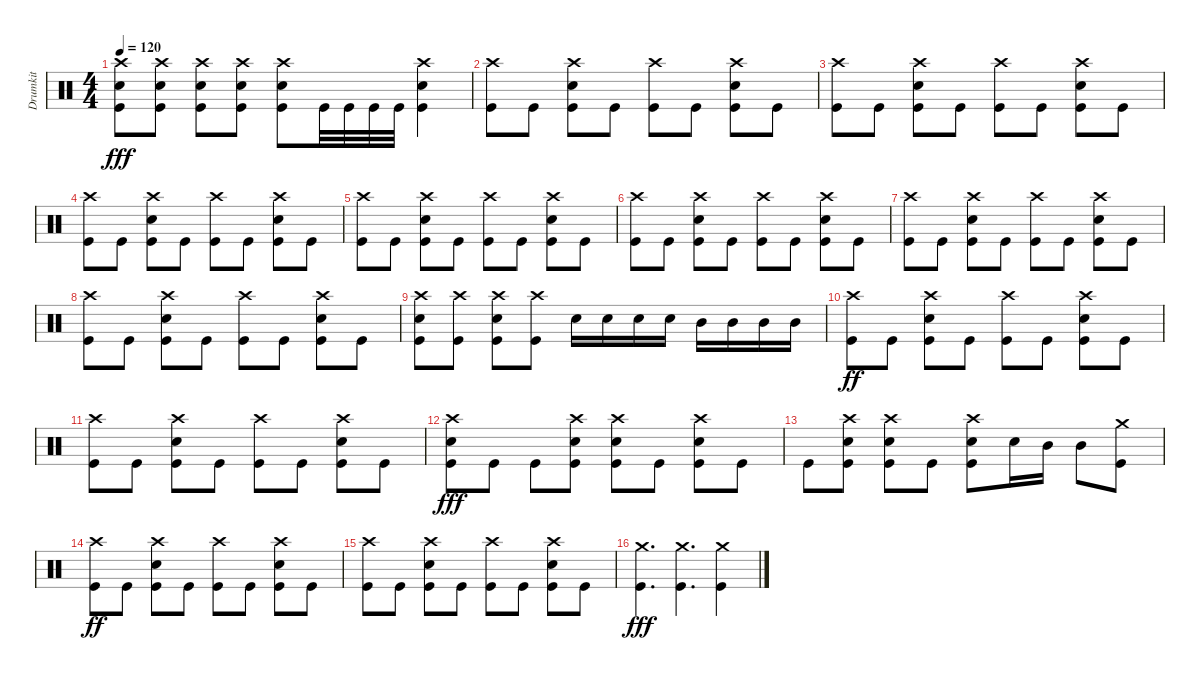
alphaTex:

\track ("Drumkit" "Drumkit") {instrument percussion}
\staff {score}
\articulation defaults
\ts (4 4)
\tempo 120
\clef neutral
\ks c
("Kick (hit)" "Snare (hit) 2" "Crash high (hit)").8{dy fff} ("Kick (hit)" "Snare (hit) 2" "Crash high (hit)").8 ("Kick (hit)" "Snare (hit) 2" "Crash high (hit)").8 ("Kick (hit)" "Snare (hit) 2" "Crash high (hit)").8 ("Kick (hit)" "Snare (hit) 2" "Crash high (hit)").8 "Kick (hit)".32 "Kick (hit)".32 "Kick (hit)".32 "Kick (hit)".32 ("Kick (hit)" "Snare (hit) 2" "Crash high (hit)").4 |
("Crash high (hit)" "Kick (hit)").8 "Kick (hit)".8 ("Snare (hit) 2" "Kick (hit)" "Crash high (hit)").8 "Kick (hit)".8 ("Crash high (hit)" "Kick (hit)").8 "Kick (hit)".8 ("Snare (hit) 2" "Kick (hit)" "Crash high (hit)").8 "Kick (hit)".8 |
("Crash high (hit)" "Kick (hit)").8 "Kick (hit)".8 ("Snare (hit) 2" "Kick (hit)" "Crash high (hit)").8 "Kick (hit)".8 ("Crash high (hit)" "Kick (hit)").8 "Kick (hit)".8 ("Snare (hit) 2" "Kick (hit)" "Crash high (hit)").8 "Kick (hit)".8 |
("Crash high (hit)" "Kick (hit)").8 "Kick (hit)".8 ("Snare (hit) 2" "Kick (hit)" "Crash high (hit)").8 "Kick (hit)".8 ("Crash high (hit)" "Kick (hit)").8 "Kick (hit)".8 ("Snare (hit) 2" "Kick (hit)" "Crash high (hit)").8 "Kick (hit)".8 |
("Crash high (hit)" "Kick (hit)").8 "Kick (hit)".8 ("Snare (hit) 2" "Kick (hit)" "Crash high (hit)").8 "Kick (hit)".8 ("Crash high (hit)" "Kick (hit)").8 "Kick (hit)".8 ("Snare (hit) 2" "Kick (hit)" "Crash high (hit)").8 "Kick (hit)".8 |
("Crash high (hit)" "Kick (hit)").8 "Kick (hit)".8 ("Snare (hit) 2" "Kick (hit)" "Crash high (hit)").8 "Kick (hit)".8 ("Crash high (hit)" "Kick (hit)").8 "Kick (hit)".8 ("Snare (hit) 2" "Kick (hit)" "Crash high (hit)").8 "Kick (hit)".8 |
("Crash high (hit)" "Kick (hit)").8 "Kick (hit)".8 ("Snare (hit) 2" "Kick (hit)" "Crash high (hit)").8 "Kick (hit)".8 ("Crash high (hit)" "Kick (hit)").8 "Kick (hit)".8 ("Snare (hit) 2" "Kick (hit)" "Crash high (hit)").8 "Kick (hit)".8 |
("Crash high (hit)" "Kick (hit)").8 "Kick (hit)".8 ("Snare (hit) 2" "Kick (hit)" "Crash high (hit)").8 "Kick (hit)".8 ("Crash high (hit)" "Kick (hit)").8 "Kick (hit)".8 ("Snare (hit) 2" "Kick (hit)" "Crash high (hit)").8 "Kick (hit)".8 |
("Snare (hit) 2" "Kick (hit)" "Crash high (hit)").8 ("Crash high (hit)" "Kick (hit)").8 ("Snare (hit) 2" "Kick (hit)" "Crash high (hit)").8 ("Crash high (hit)" "Kick (hit)").8 "Snare (hit) 2".16 "Snare (hit) 2".16 "Snare (hit) 2".16 "Snare (hit) 2".16 "Mid Tom (hit)".16 "Mid Tom (hit)".16 "Mid Tom (hit)".16 "Mid Tom (hit)".16 |
("Crash high (hit)" "Kick (hit)").8{dy ff} "Kick (hit)".8 ("Snare (hit) 2" "Kick (hit)" "Crash high (hit)").8 "Kick (hit)".8 ("Crash high (hit)" "Kick (hit)").8 "Kick (hit)".8 ("Snare (hit) 2" "Kick (hit)" "Crash high (hit)").8 "Kick (hit)".8 |
("Crash high (hit)" "Kick (hit)").8 "Kick (hit)".8 ("Snare (hit) 2" "Kick (hit)" "Crash high (hit)").8 "Kick (hit)".8 ("Crash high (hit)" "Kick (hit)").8 "Kick (hit)".8 ("Snare (hit) 2" "Kick (hit)" "Crash high (hit)").8 "Kick (hit)".8 |
("Kick (hit)" "Crash high (hit)" "Snare (hit) 2").8{dy fff} "Kick (hit)".8 "Kick (hit)".8 ("Kick (hit)" "Crash high (hit)" "Snare (hit) 2").8 ("Kick (hit)" "Crash high (hit)" "Snare (hit) 2").8 "Kick (hit)".8 ("Kick (hit)" "Crash high (hit)" "Snare (hit) 2").8 "Kick (hit)".8 |
"Kick (hit)".8 ("Kick (hit)" "Crash high (hit)" "Snare (hit) 2").8 ("Kick (hit)" "Crash high (hit)" "Snare (hit) 2").8 "Kick (hit)".8 ("Kick (hit)" "Crash high (hit)" "Snare (hit) 2").8 "Snare (hit) 2".16 "Mid Tom (hit)".16 "Mid Tom (hit)".8 ("Kick (hit)" "Crash medium (hit)").8 |
("Crash high (hit)" "Kick (hit)").8{dy ff} "Kick (hit)".8 ("Snare (hit) 2" "Kick (hit)" "Crash high (hit)").8 "Kick (hit)".8 ("Crash high (hit)" "Kick (hit)").8 "Kick (hit)".8 ("Snare (hit) 2" "Kick (hit)" "Crash high (hit)").8 "Kick (hit)".8 |
("Crash high (hit)" "Kick (hit)").8 "Kick (hit)".8 ("Snare (hit) 2" "Kick (hit)" "Crash high (hit)").8 "Kick (hit)".8 ("Crash high (hit)" "Kick (hit)").8 "Kick (hit)".8 ("Snare (hit) 2" "Kick (hit)" "Crash high (hit)").8 "Kick (hit)".8 |
("Kick (hit)" "Crash medium (hit)").4{d dy fff} ("Kick (hit)" "Crash medium (hit)").4{d} ("Kick (hit)" "Crash medium (hit)").4
